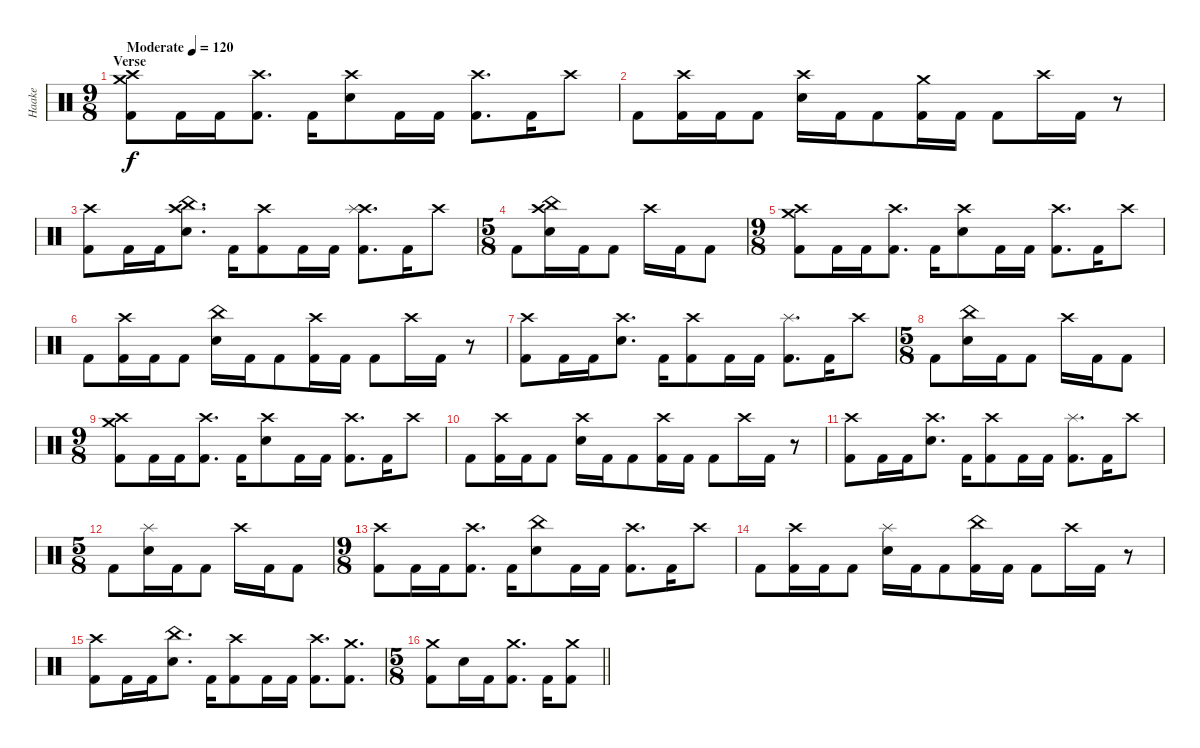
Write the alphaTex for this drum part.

\track ("Haake" "Haake") {instrument percussion}
\staff {score}
\articulation defaults
\ts (9 8)
\section ("" "Verse")
\tempo (120 "Moderate")
\clef neutral
\ks c
("Crash high (hit)" "Crash medium (hit)" "Kick (hit) 2").8{dy f} "Kick (hit) 2".16 "Kick (hit) 2".16 ("Crash high (hit)" "Kick (hit) 2").8{d} "Kick (hit) 2".16 ("Crash high (hit)" "Electric Snare (hit)").8 "Kick (hit) 2".16 "Kick (hit) 2".16 ("Crash high (hit)" "Kick (hit) 2").8{d} "Kick (hit) 2".16 "Crash high (hit)".8 |
"Kick (hit) 2".8 ("Crash high (hit)" "Kick (hit) 2").16 "Kick (hit) 2".16 "Kick (hit) 2".8 ("Crash high (hit)" "Electric Snare (hit)").16 "Kick (hit) 2".16 "Kick (hit) 2".8 ("Crash medium (hit)" "Kick (hit) 2").16 "Kick (hit) 2".16 "Kick (hit) 2".8 "Crash high (hit)".16 "Kick (hit) 2".16 r.8 |
("Crash high (hit)" "Kick (hit) 2").8 "Kick (hit) 2".16 "Kick (hit) 2".16 ("Crash high (hit)" "Electric Snare (hit)" "China (hit)").8{d} "Kick (hit) 2".16 ("Crash high (hit)" "Kick (hit) 2").8 "Kick (hit) 2".16 "Kick (hit) 2".16 ("Crash high (hit)" "Splash (hit)" "Kick (hit) 2").8{d} "Kick (hit) 2".16 "Crash high (hit)".8 |
\ts (5 8)
"Kick (hit) 2".8 ("Crash high (hit)" "Electric Snare (hit)" "China (hit)").16 "Kick (hit) 2".16 "Kick (hit) 2".8 "Crash high (hit)".16 "Kick (hit) 2".16 "Kick (hit) 2".8 |
\ts (9 8)
("Crash high (hit)" "Crash medium (hit)" "Kick (hit) 2").8 "Kick (hit) 2".16 "Kick (hit) 2".16 ("Crash high (hit)" "Kick (hit) 2").8{d} "Kick (hit) 2".16 ("Crash high (hit)" "Electric Snare (hit)").8 "Kick (hit) 2".16 "Kick (hit) 2".16 ("Crash high (hit)" "Kick (hit) 2").8{d} "Kick (hit) 2".16 "Crash high (hit)".8 |
"Kick (hit) 2".8 ("Crash high (hit)" "Kick (hit) 2").16 "Kick (hit) 2".16 "Kick (hit) 2".8 ("China (hit)" "Electric Snare (hit)").16 "Kick (hit) 2".16 "Kick (hit) 2".8 ("Crash high (hit)" "Kick (hit) 2").16 "Kick (hit) 2".16 "Kick (hit) 2".8 "Crash high (hit)".16 "Kick (hit) 2".16 r.8 |
("Crash high (hit)" "Kick (hit) 2").8 "Kick (hit) 2".16 "Kick (hit) 2".16 ("Crash high (hit)" "Electric Snare (hit)").8{d} "Kick (hit) 2".16 ("Crash high (hit)" "Kick (hit) 2").8 "Kick (hit) 2".16 "Kick (hit) 2".16 ("Splash (hit)" "Kick (hit) 2").8{d} "Kick (hit) 2".16 "Crash high (hit)".8 |
\ts (5 8)
"Kick (hit) 2".8 ("China (hit)" "Electric Snare (hit)").16 "Kick (hit) 2".16 "Kick (hit) 2".8 "Crash high (hit)".16 "Kick (hit) 2".16 "Kick (hit) 2".8 |
\ts (9 8)
("Crash high (hit)" "Crash medium (hit)" "Kick (hit) 2").8 "Kick (hit) 2".16 "Kick (hit) 2".16 ("Crash high (hit)" "Kick (hit) 2").8{d} "Kick (hit) 2".16 ("Crash high (hit)" "Electric Snare (hit)").8 "Kick (hit) 2".16 "Kick (hit) 2".16 ("Crash high (hit)" "Kick (hit) 2").8{d} "Kick (hit) 2".16 "Crash high (hit)".8 |
"Kick (hit) 2".8 ("Crash high (hit)" "Kick (hit) 2").16 "Kick (hit) 2".16 "Kick (hit) 2".8 ("Crash high (hit)" "Electric Snare (hit)").16 "Kick (hit) 2".16 "Kick (hit) 2".8 ("Crash high (hit)" "Kick (hit) 2").16 "Kick (hit) 2".16 "Kick (hit) 2".8 "Crash high (hit)".16 "Kick (hit) 2".16 r.8 |
("Crash high (hit)" "Kick (hit) 2").8 "Kick (hit) 2".16 "Kick (hit) 2".16 ("Crash high (hit)" "Electric Snare (hit)").8{d} "Kick (hit) 2".16 ("Crash high (hit)" "Kick (hit) 2").8 "Kick (hit) 2".16 "Kick (hit) 2".16 ("Splash (hit)" "Kick (hit) 2").8{d} "Kick (hit) 2".16 "Crash high (hit)".8 |
\ts (5 8)
"Kick (hit) 2".8 ("Splash (hit)" "Electric Snare (hit)").16 "Kick (hit) 2".16 "Kick (hit) 2".8 "Crash high (hit)".16 "Kick (hit) 2".16 "Kick (hit) 2".8 |
\ts (9 8)
("Crash high (hit)" "Kick (hit) 2").8 "Kick (hit) 2".16 "Kick (hit) 2".16 ("Crash high (hit)" "Kick (hit) 2").8{d} "Kick (hit) 2".16 ("China (hit)" "Electric Snare (hit)").8 "Kick (hit) 2".16 "Kick (hit) 2".16 ("Crash high (hit)" "Kick (hit) 2").8{d} "Kick (hit) 2".16 "Crash high (hit)".8 |
"Kick (hit) 2".8 ("Crash high (hit)" "Kick (hit) 2").16 "Kick (hit) 2".16 "Kick (hit) 2".8 ("Splash (hit)" "Electric Snare (hit)").16 "Kick (hit) 2".16 "Kick (hit) 2".8 ("China (hit)" "Kick (hit) 2").16 "Kick (hit) 2".16 "Kick (hit) 2".8 "Crash high (hit)".16 "Kick (hit) 2".16 r.8 |
("Crash high (hit)" "Kick (hit) 2").8 "Kick (hit) 2".16 "Kick (hit) 2".16 ("China (hit)" "Electric Snare (hit)").8{d} "Kick (hit) 2".16 ("Crash high (hit)" "Kick (hit) 2").8 "Kick (hit) 2".16 "Kick (hit) 2".16 ("Crash high (hit)" "Kick (hit) 2").8{d} ("Crash medium (hit)" "Kick (hit) 2").8{d} |
\ts (5 8)
\barLineRight lightlight
("Crash medium (hit)" "Kick (hit) 2").8 "Electric Snare (hit)".16 "Kick (hit) 2".16 ("Crash medium (hit)" "Kick (hit) 2").8{d} "Kick (hit) 2".16 ("Crash medium (hit)" "Kick (hit) 2").8
